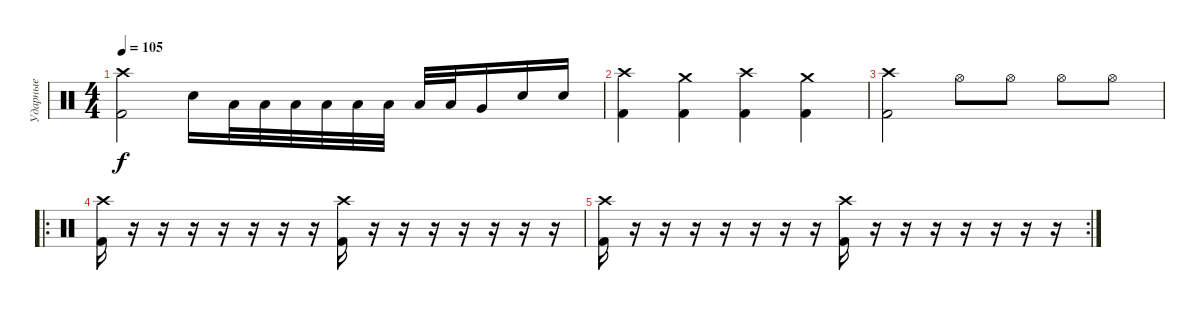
\track ("Ударные" "Ударные") {instrument percussion}
\staff {score}
\articulation defaults
\ts (4 4)
\tempo 105
\clef neutral
\ks c
("Crash high (hit)" "Kick (hit) 2").2{dy f} "Electric Snare (hit)".16 "Low Tom (hit)".32 "Low Tom (hit)".32 "Low Tom (hit)".32 "Low Tom (hit)".32 "Low Floor Tom (hit)".32 "Low Floor Tom (hit)".32 "Low Floor Tom (hit)".32 "Low Floor Tom (hit)".32 "Very Low Tom (hit)".16 "Electric Snare (hit)".16 "Electric Snare (hit)".16 |
("Crash high (hit)" "Kick (hit) 2").4 ("Crash medium (hit)" "Kick (hit) 2").4 ("Crash high (hit)" "Kick (hit) 2").4 ("Crash medium (hit)" "Kick (hit) 2").4 |
("Crash high (hit)" "Kick (hit) 2").2 "Hi-Hat (open)".8 "Hi-Hat (open)".8 "Hi-Hat (open)".8 "Hi-Hat (open)".8 |
\ro
("Crash high (hit)" "Kick (hit) 2").16 r.16 r.16 r.16 r.16 r.16 r.16 r.16 ("Crash high (hit)" "Kick (hit) 2").16 r.16 r.16 r.16 r.16 r.16 r.16 r.16 |
\rc 2
("Crash high (hit)" "Kick (hit) 2").16 r.16 r.16 r.16 r.16 r.16 r.16 r.16 ("Crash high (hit)" "Kick (hit) 2").16 r.16 r.16 r.16 r.16 r.16 r.16 r.16
